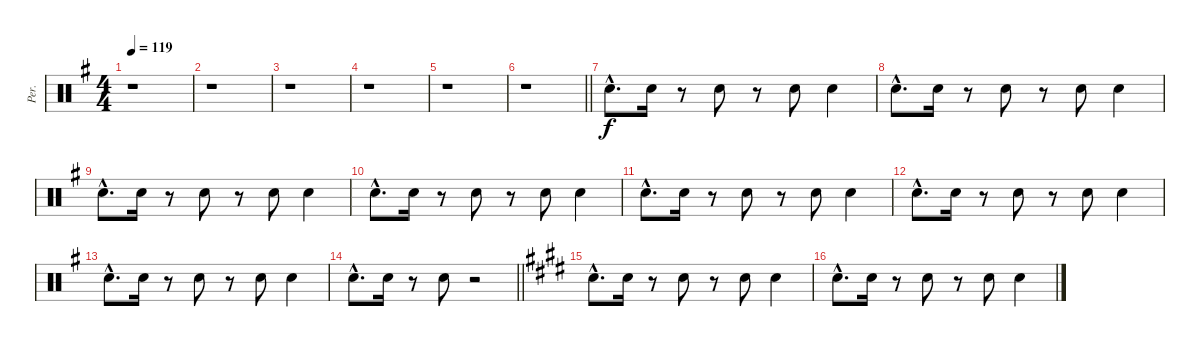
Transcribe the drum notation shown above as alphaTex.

\track ("Per." "Per.") {instrument percussion}
\staff {score}
\articulation defaults
\ts (4 4)
\tempo 119
\clef neutral
\ks eminor
r.1{dy f} |
r.1 |
r.1 |
r.1 |
r.1 |
\barLineRight lightlight
r.1 |
"Hand Clap (hit)"{hac}.8{d} "Hand Clap (hit)".16 r.8 "Hand Clap (hit)".8 r.8 "Hand Clap (hit)".8 "Hand Clap (hit)".4 |
"Hand Clap (hit)"{hac}.8{d} "Hand Clap (hit)".16 r.8 "Hand Clap (hit)".8 r.8 "Hand Clap (hit)".8 "Hand Clap (hit)".4 |
"Hand Clap (hit)"{hac}.8{d} "Hand Clap (hit)".16 r.8 "Hand Clap (hit)".8 r.8 "Hand Clap (hit)".8 "Hand Clap (hit)".4 |
"Hand Clap (hit)"{hac}.8{d} "Hand Clap (hit)".16 r.8 "Hand Clap (hit)".8 r.8 "Hand Clap (hit)".8 "Hand Clap (hit)".4 |
"Hand Clap (hit)"{hac}.8{d} "Hand Clap (hit)".16 r.8 "Hand Clap (hit)".8 r.8 "Hand Clap (hit)".8 "Hand Clap (hit)".4 |
"Hand Clap (hit)"{hac}.8{d} "Hand Clap (hit)".16 r.8 "Hand Clap (hit)".8 r.8 "Hand Clap (hit)".8 "Hand Clap (hit)".4 |
"Hand Clap (hit)"{hac}.8{d} "Hand Clap (hit)".16 r.8 "Hand Clap (hit)".8 r.8 "Hand Clap (hit)".8 "Hand Clap (hit)".4 |
\barLineRight lightlight "Hand Clap (hit)"{hac}.8{d} "Hand Clap (hit)".16
r.8 "Hand Clap (hit)".8 r.2 |
\ks c#minor "Hand Clap (hit)"{hac}.8{d} "Hand Clap (hit)".16
r.8 "Hand Clap (hit)".8 r.8 "Hand Clap (hit)".8 "Hand Clap (hit)".4 |
"Hand Clap (hit)"{hac}.8{d} "Hand Clap (hit)".16 r.8 "Hand Clap (hit)".8 r.8 "Hand Clap (hit)".8 "Hand Clap (hit)".4
